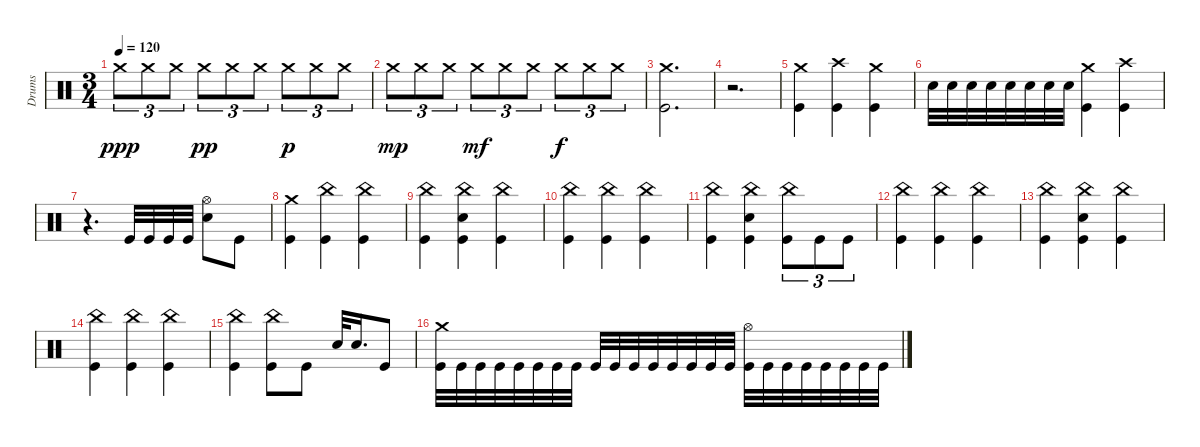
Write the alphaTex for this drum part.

\track ("Drums" "Drums") {instrument percussion}
\staff {score}
\articulation defaults
\ts (3 4)
\tempo 120
\clef neutral
\ks c "Crash medium (hit)".8{tu (3 2) dy ppp} "Crash medium (hit)".8{tu (3 2)} "Crash medium (hit)".8{tu (3 2)} "Crash medium (hit)".8{tu (3 2) dy pp} "Crash medium (hit)".8{tu (3 2)} "Crash medium (hit)".8{tu (3 2)} "Crash medium (hit)".8{tu (3 2) dy p} "Crash medium (hit)".8{tu (3 2)} "Crash medium (hit)".8{tu (3 2)}
|
"Crash medium (hit)".8{tu (3 2) dy mp} "Crash medium (hit)".8{tu (3 2)} "Crash medium (hit)".8{tu (3 2)} "Crash medium (hit)".8{tu (3 2) dy mf} "Crash medium (hit)".8{tu (3 2)} "Crash medium (hit)".8{tu (3 2)} "Crash medium (hit)".8{tu (3 2) dy f} "Crash medium (hit)".8{tu (3 2)} "Crash medium (hit)".8{tu (3 2)} |
("Crash medium (hit)" "Kick (hit)").2{d} |
r.2{d} |
("Kick (hit)" "Crash medium (hit)").4 ("Kick (hit)" "Crash high (hit)").4 ("Kick (hit)" "Crash medium (hit)").4 |
"Snare (hit) 2".32 "Snare (hit) 2".32 "Snare (hit) 2".32 "Snare (hit) 2".32 "Snare (hit) 2".32 "Snare (hit) 2".32 "Snare (hit) 2".32 "Snare (hit) 2".32 ("Kick (hit)" "Crash medium (hit)").4 ("Kick (hit)" "Crash high (hit)").4 |
r.4{d} "Kick (hit)".32 "Kick (hit)".32 "Kick (hit)".32 "Kick (hit)".32 ("Snare (hit) 2" "Hi-Hat (open)").8 "Kick (hit)".8 |
("Kick (hit)" "Crash medium (hit)").4 ("Kick (hit)" "China (hit)").4 ("Kick (hit)" "China (hit)").4 |
("Kick (hit)" "China (hit)").4 ("Kick (hit)" "China (hit)" "Snare (hit) 2").4 ("Kick (hit)" "China (hit)").4 |
("Kick (hit)" "China (hit)").4 ("Kick (hit)" "China (hit)").4 ("Kick (hit)" "China (hit)").4 |
("Kick (hit)" "China (hit)").4 ("Kick (hit)" "China (hit)" "Snare (hit) 2").4 ("Kick (hit)" "China (hit)").8{tu (3 2)} "Kick (hit)".8{tu (3 2)} "Kick (hit)".8{tu (3 2)} |
("Kick (hit)" "China (hit)").4 ("Kick (hit)" "China (hit)").4 ("Kick (hit)" "China (hit)").4 |
("Kick (hit)" "China (hit)").4 ("Kick (hit)" "China (hit)" "Snare (hit) 2").4 ("Kick (hit)" "China (hit)").4 |
("Kick (hit)" "China (hit)").4 ("Kick (hit)" "China (hit)").4 ("Kick (hit)" "China (hit)").4 |
("Kick (hit)" "China (hit)").4 ("Kick (hit)" "China (hit)").8 "Kick (hit)".8 "Snare (hit) 2".32 "Snare (hit) 2".16{d} "Kick (hit)".8 |
("Kick (hit)" "Crash medium (hit)").32 "Kick (hit)".32 "Kick (hit)".32 "Kick (hit)".32 "Kick (hit)".32 "Kick (hit)".32 "Kick (hit)".32 "Kick (hit)".32 "Kick (hit)".32 "Kick (hit)".32 "Kick (hit)".32 "Kick (hit)".32 "Kick (hit)".32 "Kick (hit)".32 "Kick (hit)".32 "Kick (hit)".32 ("Kick (hit)" "Hi-Hat (open)").32 "Kick (hit)".32 "Kick (hit)".32 "Kick (hit)".32 "Kick (hit)".32 "Kick (hit)".32 "Kick (hit)".32 "Kick (hit)".32
